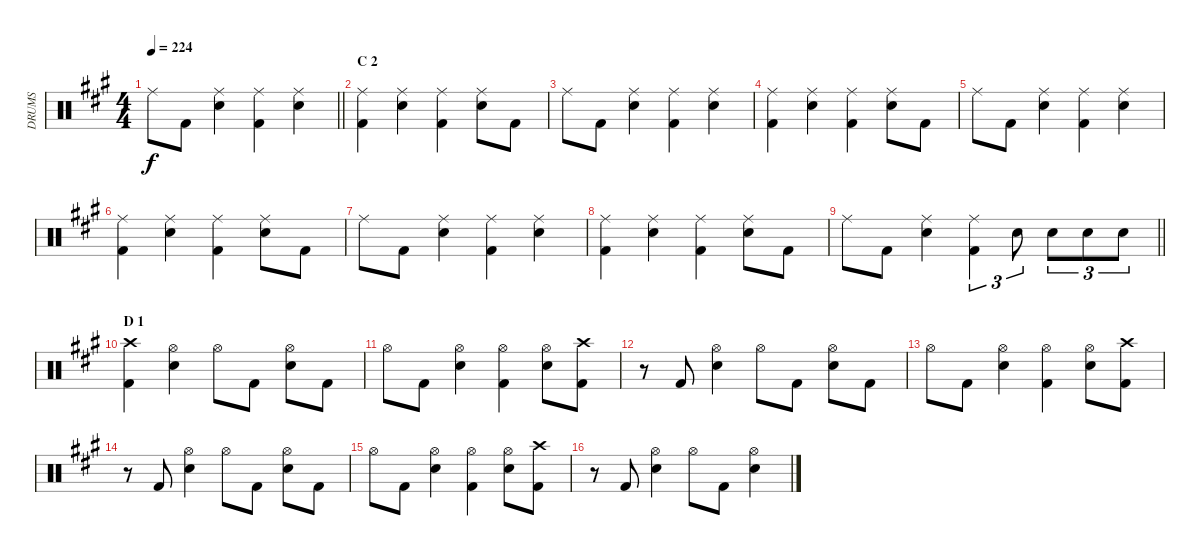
\track ("DRUMS" "DRUMS") {instrument percussion}
\staff {score}
\articulation defaults
\ts (4 4)
\tempo 224
\clef neutral
\barLineRight lightlight
\ks a "Ride (middle)".8{dy f} "Kick (hit) 2".8
("Ride (middle)" "Snare (hit) 2").4 ("Ride (middle)" "Kick (hit) 2").4 ("Ride (middle)" "Snare (hit) 2").4 |
\section ("" "C 2")
("Ride (middle)" "Kick (hit) 2").4 ("Ride (middle)" "Snare (hit) 2").4 ("Ride (middle)" "Kick (hit) 2").4 ("Ride (middle)" "Snare (hit) 2").8 "Kick (hit) 2".8 |
"Ride (middle)".8 "Kick (hit) 2".8 ("Ride (middle)" "Snare (hit) 2").4 ("Ride (middle)" "Kick (hit) 2").4 ("Ride (middle)" "Snare (hit) 2").4 |
("Ride (middle)" "Kick (hit) 2").4 ("Ride (middle)" "Snare (hit) 2").4 ("Ride (middle)" "Kick (hit) 2").4 ("Ride (middle)" "Snare (hit) 2").8 "Kick (hit) 2".8 |
"Ride (middle)".8 "Kick (hit) 2".8 ("Ride (middle)" "Snare (hit) 2").4 ("Ride (middle)" "Kick (hit) 2").4 ("Ride (middle)" "Snare (hit) 2").4 |
("Ride (middle)" "Kick (hit) 2").4 ("Ride (middle)" "Snare (hit) 2").4 ("Ride (middle)" "Kick (hit) 2").4 ("Ride (middle)" "Snare (hit) 2").8 "Kick (hit) 2".8 |
"Ride (middle)".8 "Kick (hit) 2".8 ("Ride (middle)" "Snare (hit) 2").4 ("Ride (middle)" "Kick (hit) 2").4 ("Ride (middle)" "Snare (hit) 2").4 |
("Ride (middle)" "Kick (hit) 2").4 ("Ride (middle)" "Snare (hit) 2").4 ("Ride (middle)" "Kick (hit) 2").4 ("Ride (middle)" "Snare (hit) 2").8 "Kick (hit) 2".8 |
\barLineRight lightlight "Ride (middle)".8 "Kick (hit) 2".8
("Ride (middle)" "Snare (hit) 2").4 ("Ride (middle)" "Kick (hit) 2").4{tu (3 2)} "Snare (hit) 2".8{tu (3 2)} "Snare (hit) 2".8{tu (3 2)} "Snare (hit) 2".8{tu (3 2)} "Snare (hit) 2".8{tu (3 2)} |
\section ("" "D 1")
("Crash high (hit)" "Kick (hit) 2").4 ("Hi-Hat (open)" "Snare (hit) 2").4 "Hi-Hat (open)".8 "Kick (hit) 2".8 ("Hi-Hat (open)" "Snare (hit) 2").8 "Kick (hit) 2".8 |
"Hi-Hat (open)".8 "Kick (hit) 2".8 ("Hi-Hat (open)" "Snare (hit) 2").4 ("Hi-Hat (open)" "Kick (hit) 2").4 ("Hi-Hat (open)" "Snare (hit) 2").8 ("Crash high (hit)" "Kick (hit) 2").8 |
r.8 "Kick (hit) 2".8 ("Hi-Hat (open)" "Snare (hit) 2").4 "Hi-Hat (open)".8 "Kick (hit) 2".8 ("Hi-Hat (open)" "Snare (hit) 2").8 "Kick (hit) 2".8 |
"Hi-Hat (open)".8 "Kick (hit) 2".8 ("Hi-Hat (open)" "Snare (hit) 2").4 ("Hi-Hat (open)" "Kick (hit) 2").4 ("Hi-Hat (open)" "Snare (hit) 2").8 ("Crash high (hit)" "Kick (hit) 2").8 |
r.8 "Kick (hit) 2".8 ("Hi-Hat (open)" "Snare (hit) 2").4 "Hi-Hat (open)".8 "Kick (hit) 2".8 ("Hi-Hat (open)" "Snare (hit) 2").8 "Kick (hit) 2".8 |
"Hi-Hat (open)".8 "Kick (hit) 2".8 ("Hi-Hat (open)" "Snare (hit) 2").4 ("Hi-Hat (open)" "Kick (hit) 2").4 ("Hi-Hat (open)" "Snare (hit) 2").8 ("Crash high (hit)" "Kick (hit) 2").8 |
r.8 "Kick (hit) 2".8 ("Hi-Hat (open)" "Snare (hit) 2").4 "Hi-Hat (open)".8 "Kick (hit) 2".8 ("Hi-Hat (open)" "Snare (hit) 2").4
